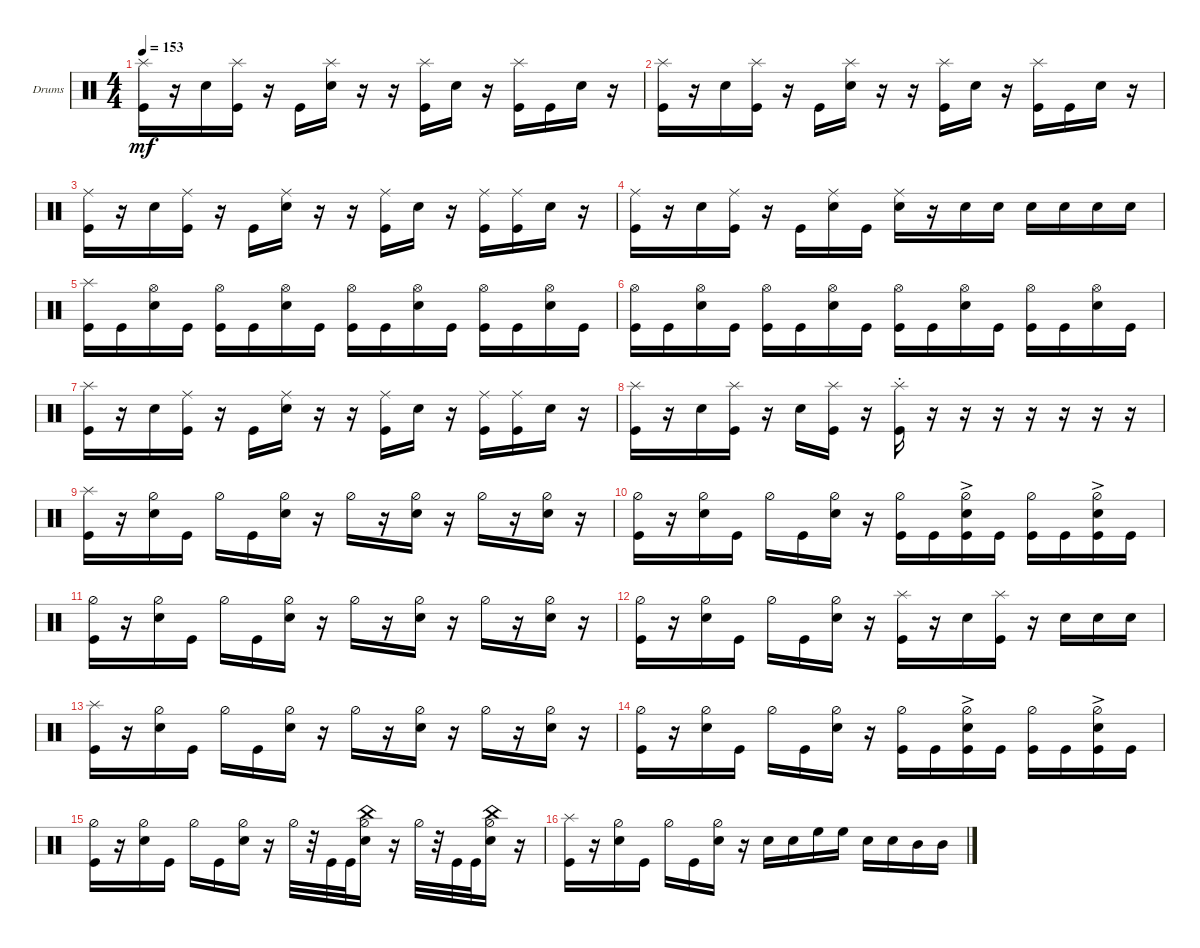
\bracketExtendMode groupsimilarinstruments
\firstSystemTrackNameOrientation horizontal
\otherSystemsTrackNameOrientation horizontal
\track ("Drumkit" "Drums") {instrument percussion}
\staff {score}
\articulation defaults
\ts (4 4)
\tempo 153
\clef neutral
\ks c
("Kick (hit)" "Splash (hit)").16{dy mf} r.16 "Snare (hit) 2".16 ("Kick (hit)" "Splash (hit)").16 r.16 "Kick (hit)".16 ("Snare (hit) 2" "Splash (hit)").16 r.16 r.16 ("Kick (hit)" "Splash (hit)").16 "Snare (hit) 2".16 r.16 ("Kick (hit)" "Splash (hit)").16 "Kick (hit)".16 "Snare (hit) 2".16 r.16 |
("Kick (hit)" "Splash (hit)").16 r.16 "Snare (hit) 2".16 ("Kick (hit)" "Splash (hit)").16 r.16 "Kick (hit)".16 ("Snare (hit) 2" "Splash (hit)").16 r.16 r.16 ("Kick (hit)" "Splash (hit)").16 "Snare (hit) 2".16 r.16 ("Kick (hit)" "Splash (hit)").16 "Kick (hit)".16 "Snare (hit) 2".16 r.16 |
("Kick (hit)" "Ride (middle)").16 r.16 "Snare (hit) 2".16 ("Kick (hit)" "Ride (middle)").16 r.16 "Kick (hit)".16 ("Snare (hit) 2" "Ride (middle)").16 r.16 r.16 ("Kick (hit)" "Ride (middle)").16 "Snare (hit) 2".16 r.16 ("Kick (hit)" "Ride (middle)").16 ("Kick (hit)" "Ride (middle)").16 "Snare (hit) 2".16 r.16 |
("Kick (hit)" "Ride (middle)").16 r.16 "Snare (hit) 2".16 ("Kick (hit)" "Ride (middle)").16 r.16 "Kick (hit)".16 ("Snare (hit) 2" "Ride (middle)").16 "Kick (hit)".16 ("Snare (hit) 2" "Ride (middle)").16 r.16 "Snare (hit) 2".16 "Snare (hit) 2".16 "Snare (hit) 2".16 "Snare (hit) 2".16 "Snare (hit) 2".16 "Snare (hit) 2".16 |
("Kick (hit)" "Splash (hit)").16 "Kick (hit)".16 ("Snare (hit) 2" "Hi-Hat (open)").16 "Kick (hit)".16 ("Kick (hit)" "Hi-Hat (open)").16 "Kick (hit)".16 ("Snare (hit) 2" "Hi-Hat (open)").16 "Kick (hit)".16 ("Kick (hit)" "Hi-Hat (open)").16 "Kick (hit)".16 ("Snare (hit) 2" "Hi-Hat (open)").16 "Kick (hit)".16 ("Kick (hit)" "Hi-Hat (open)").16 "Kick (hit)".16 ("Snare (hit) 2" "Hi-Hat (open)").16 "Kick (hit)".16 |
("Kick (hit)" "Hi-Hat (open)").16 "Kick (hit)".16 ("Snare (hit) 2" "Hi-Hat (open)").16 "Kick (hit)".16 ("Kick (hit)" "Hi-Hat (open)").16 "Kick (hit)".16 ("Snare (hit) 2" "Hi-Hat (open)").16 "Kick (hit)".16 ("Kick (hit)" "Hi-Hat (open)").16 "Kick (hit)".16 ("Snare (hit) 2" "Hi-Hat (open)").16 "Kick (hit)".16 ("Kick (hit)" "Hi-Hat (open)").16 "Kick (hit)".16 ("Snare (hit) 2" "Hi-Hat (open)").16 "Kick (hit)".16 |
("Kick (hit)" "Splash (hit)").16 r.16 "Snare (hit) 2".16 ("Kick (hit)" "Ride (middle)").16 r.16 "Kick (hit)".16 ("Snare (hit) 2" "Ride (middle)").16 r.16 r.16 ("Kick (hit)" "Ride (middle)").16 "Snare (hit) 2".16 r.16 ("Kick (hit)" "Ride (middle)").16 ("Kick (hit)" "Ride (middle)").16 "Snare (hit) 2".16 r.16 |
("Kick (hit)" "Splash (hit)").16 r.16 "Snare (hit) 2".16 ("Kick (hit)" "Splash (hit)").16 r.16 "Snare (hit) 2".16 ("Kick (hit)" "Splash (hit)").16 r.16 ("Kick (hit)" "Splash (hit)"{st}).16 r.16 r.16 r.16 r.16 r.16 r.16 r.16 |
("Kick (hit)" "Splash (hit)").16 r.16 ("Snare (hit) 2" "Hi-Hat (half)").16 "Kick (hit)".16 "Hi-Hat (half)".16 "Kick (hit)".16 ("Snare (hit) 2" "Hi-Hat (half)").16 r.16 "Hi-Hat (half)".16 r.16 ("Snare (hit) 2" "Hi-Hat (half)").16 r.16 "Hi-Hat (half)".16 r.16 ("Snare (hit) 2" "Hi-Hat (half)").16 r.16 |
("Kick (hit)" "Hi-Hat (half)").16 r.16 ("Snare (hit) 2" "Hi-Hat (half)").16 "Kick (hit)".16 "Hi-Hat (half)".16 "Kick (hit)".16 ("Snare (hit) 2" "Hi-Hat (half)").16 r.16 ("Kick (hit)" "Hi-Hat (half)").16 "Kick (hit)".16 ("Snare (hit) 2"{ac} "Kick (hit)" "Hi-Hat (half)").16 "Kick (hit)".16 ("Kick (hit)" "Hi-Hat (half)").16 "Kick (hit)".16 ("Snare (hit) 2"{ac} "Kick (hit)" "Hi-Hat (half)").16 "Kick (hit)".16 |
("Kick (hit)" "Hi-Hat (half)").16 r.16 ("Snare (hit) 2" "Hi-Hat (half)").16 "Kick (hit)".16 "Hi-Hat (half)".16 "Kick (hit)".16 ("Snare (hit) 2" "Hi-Hat (half)").16 r.16 "Hi-Hat (half)".16 r.16 ("Snare (hit) 2" "Hi-Hat (half)").16 r.16 "Hi-Hat (half)".16 r.16 ("Snare (hit) 2" "Hi-Hat (half)").16 r.16 |
("Kick (hit)" "Hi-Hat (half)").16 r.16 ("Snare (hit) 2" "Hi-Hat (half)").16 "Kick (hit)".16 "Hi-Hat (half)".16 "Kick (hit)".16 ("Snare (hit) 2" "Hi-Hat (half)").16 r.16 ("Kick (hit)" "Splash (hit)").16 r.16 "Snare (hit) 2".16 ("Kick (hit)" "Splash (hit)").16 r.16 "Snare (hit) 2".16 "Snare (hit) 2".16 "Snare (hit) 2".16 |
("Kick (hit)" "Splash (hit)").16 r.16 ("Snare (hit) 2" "Hi-Hat (half)").16 "Kick (hit)".16 "Hi-Hat (half)".16 "Kick (hit)".16 ("Snare (hit) 2" "Hi-Hat (half)").16 r.16 "Hi-Hat (half)".16 r.16 ("Snare (hit) 2" "Hi-Hat (half)").16 r.16 "Hi-Hat (half)".16 r.16 ("Snare (hit) 2" "Hi-Hat (half)").16 r.16 |
("Kick (hit)" "Hi-Hat (half)").16 r.16 ("Snare (hit) 2" "Hi-Hat (half)").16 "Kick (hit)".16 "Hi-Hat (half)".16 "Kick (hit)".16 ("Snare (hit) 2" "Hi-Hat (half)").16 r.16 ("Kick (hit)" "Hi-Hat (half)").16 "Kick (hit)".16 ("Snare (hit) 2"{ac} "Kick (hit)" "Hi-Hat (half)").16 "Kick (hit)".16 ("Kick (hit)" "Hi-Hat (half)").16 "Kick (hit)".16 ("Snare (hit) 2"{ac} "Kick (hit)" "Hi-Hat (half)").16 "Kick (hit)".16 |
("Kick (hit)" "Hi-Hat (half)").16 r.16 ("Snare (hit) 2" "Hi-Hat (half)").16 "Kick (hit)".16 "Hi-Hat (half)".16 "Kick (hit)".16 ("Snare (hit) 2" "Hi-Hat (half)").16 r.16 "Hi-Hat (half)".32 r.32 "Kick (hit)".32 "Kick (hit)".32 ("Snare (hit) 2" "Hi-Hat (half)" "China (hit)").16 r.16 "Hi-Hat (half)".32 r.32 "Kick (hit)".32 "Kick (hit)".32 ("Snare (hit) 2" "Hi-Hat (half)" "China (hit)").16 r.16 |
("Kick (hit)" "Splash (hit)").16 r.16 ("Snare (hit) 2" "Hi-Hat (half)").16 "Kick (hit)".16 "Hi-Hat (half)".16 "Kick (hit)".16 ("Snare (hit) 2" "Hi-Hat (half)").16 r.16 "Snare (hit) 2".16 "Snare (hit) 2".16 "High Floor Tom (hit)".16 "High Floor Tom (hit)".16 "Snare (hit) 2".16 "Snare (hit) 2".16 "Mid Tom (hit)".16 "Mid Tom (hit)".16
